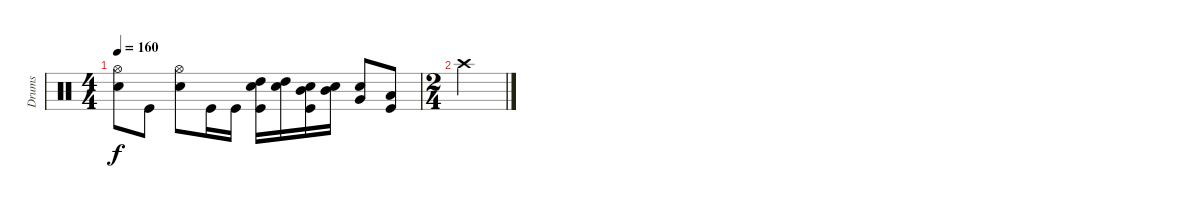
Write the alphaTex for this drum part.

\track ("Drums" "Drums") {instrument percussion}
\staff {score}
\articulation defaults
\ts (4 4)
\tempo 160
\clef neutral
\ks c
("Hi-Hat (open)" "Electric Snare (hit)").8{dy f} "Kick (hit)".8 ("Hi-Hat (open)" "Electric Snare (hit)").8 "Kick (hit)".16 "Kick (hit)".16 ("High Tom (hit)" "Electric Snare (hit)" "Kick (hit)").16 ("High Tom (hit)" "Electric Snare (hit)").16 ("Mid Tom (hit)" "Electric Snare (hit)" "Kick (hit)").16 ("Mid Tom (hit)" "Electric Snare (hit)").16 ("Very Low Tom (hit)" "Electric Snare (hit)").8 ("Low Floor Tom (hit)" "Kick (hit)").8 |
\ts (2 4)
"Crash high (hit)".2
